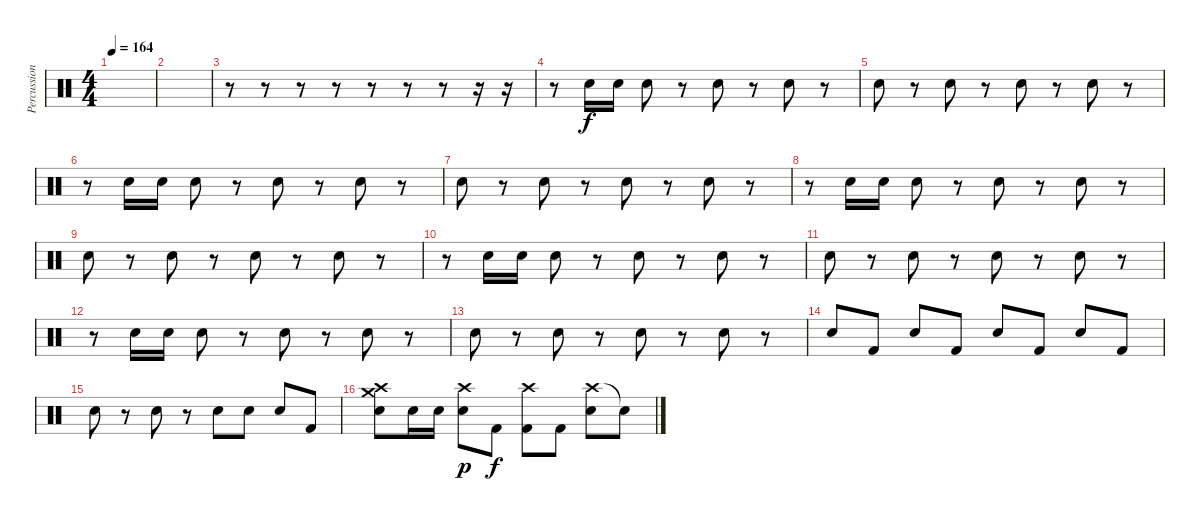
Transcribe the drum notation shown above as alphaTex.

\track ("Percussion" "Percussion") {instrument percussion bank 177}
\staff {score}
\articulation defaults
\ts (4 4)
\tempo 164
\clef neutral
\ks c
|
|
r.8 r.8 r.8 r.8 r.8 r.8 r.8 r.16 r.16 |
r.8 "Snare (hit) 2".16{dy f} "Snare (hit) 2".16 "Snare (hit) 2".8 r.8 "Snare (hit) 2".8 r.8 "Snare (hit) 2".8 r.8 |
"Snare (hit) 2".8 r.8 "Snare (hit) 2".8 r.8 "Snare (hit) 2".8 r.8 "Snare (hit) 2".8 r.8 |
r.8 "Snare (hit) 2".16 "Snare (hit) 2".16 "Snare (hit) 2".8 r.8 "Snare (hit) 2".8 r.8 "Snare (hit) 2".8 r.8 |
"Snare (hit) 2".8 r.8 "Snare (hit) 2".8 r.8 "Snare (hit) 2".8 r.8 "Snare (hit) 2".8 r.8 |
r.8 "Snare (hit) 2".16 "Snare (hit) 2".16 "Snare (hit) 2".8 r.8 "Snare (hit) 2".8 r.8 "Snare (hit) 2".8 r.8 |
"Snare (hit) 2".8 r.8 "Snare (hit) 2".8 r.8 "Snare (hit) 2".8 r.8 "Snare (hit) 2".8 r.8 |
r.8 "Snare (hit) 2".16 "Snare (hit) 2".16 "Snare (hit) 2".8 r.8 "Snare (hit) 2".8 r.8 "Snare (hit) 2".8 r.8 |
"Snare (hit) 2".8 r.8 "Snare (hit) 2".8 r.8 "Snare (hit) 2".8 r.8 "Snare (hit) 2".8 r.8 |
r.8 "Snare (hit) 2".16 "Snare (hit) 2".16 "Snare (hit) 2".8 r.8 "Snare (hit) 2".8 r.8 "Snare (hit) 2".8 r.8 |
"Snare (hit) 2".8 r.8 "Snare (hit) 2".8 r.8 "Snare (hit) 2".8 r.8 "Snare (hit) 2".8 r.8 |
"Snare (hit) 2".8 "Kick (hit) 2".8 "Snare (hit) 2".8 "Kick (hit) 2".8 "Snare (hit) 2".8 "Kick (hit) 2".8 "Snare (hit) 2".8 "Kick (hit) 2".8 |
"Snare (hit) 2".8 r.8 "Snare (hit) 2".8 r.8 "Snare (hit) 2".8 "Snare (hit) 2".8 "Snare (hit) 2".8 "Kick (hit) 2".8 |
("Crash medium (hit)" "Crash high (hit)" "Snare (hit) 2").8 "Snare (hit) 2".16 "Snare (hit) 2".16 ("Crash high (hit)" "Snare (hit) 2").8{dy p} "Kick (hit) 2".8{dy f} ("Crash high (hit)" "Kick (hit) 2").8 "Kick (hit) 2".8 ("Crash high (hit)" "Snare (hit) 2").8 "Snare (hit)"{t}.8
